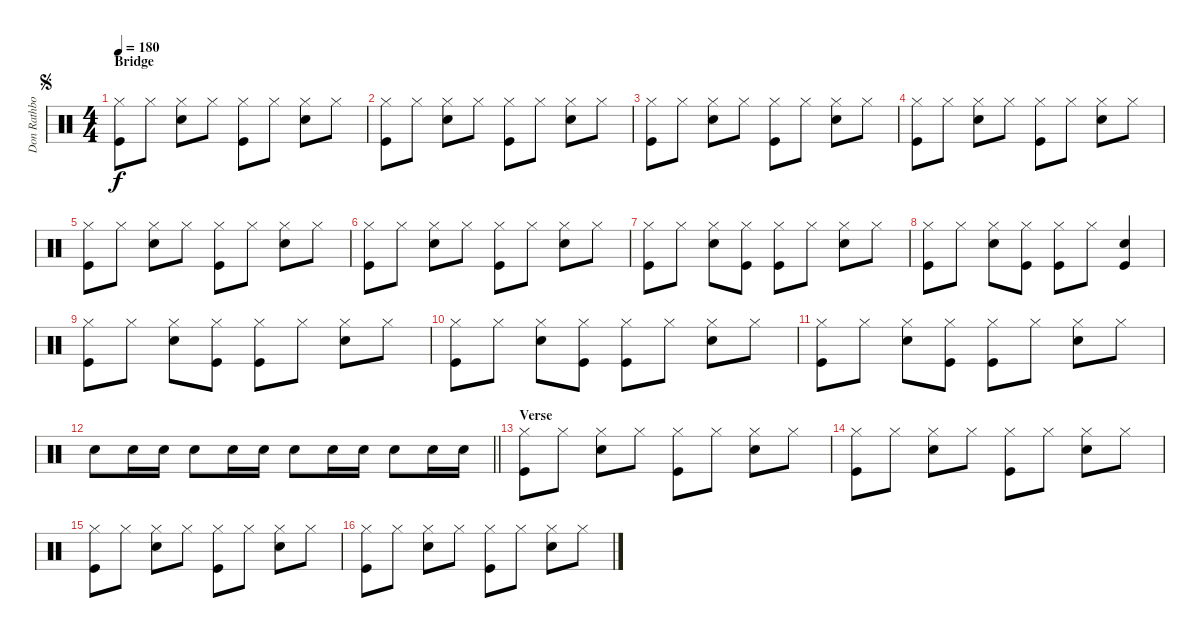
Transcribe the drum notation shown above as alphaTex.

\track ("Don Rathbone" "Don Rathbo") {instrument percussion}
\staff {score}
\articulation defaults
\ts (4 4)
\section ("" "Bridge")
\jump segno
\tempo 180
\clef neutral
\ks c
("Hi-Hat (closed)" "Kick (hit)").8{dy f} "Hi-Hat (closed)".8 ("Hi-Hat (closed)" "Snare (hit) 2").8 "Hi-Hat (closed)".8 ("Hi-Hat (closed)" "Kick (hit)").8 "Hi-Hat (closed)".8 ("Hi-Hat (closed)" "Snare (hit) 2").8 "Hi-Hat (closed)".8 |
("Hi-Hat (closed)" "Kick (hit)").8 "Hi-Hat (closed)".8 ("Hi-Hat (closed)" "Snare (hit) 2").8 "Hi-Hat (closed)".8 ("Hi-Hat (closed)" "Kick (hit)").8 "Hi-Hat (closed)".8 ("Hi-Hat (closed)" "Snare (hit) 2").8 "Hi-Hat (closed)".8 |
("Hi-Hat (closed)" "Kick (hit)").8 "Hi-Hat (closed)".8 ("Hi-Hat (closed)" "Snare (hit) 2").8 "Hi-Hat (closed)".8 ("Hi-Hat (closed)" "Kick (hit)").8 "Hi-Hat (closed)".8 ("Hi-Hat (closed)" "Snare (hit) 2").8 "Hi-Hat (closed)".8 |
("Hi-Hat (closed)" "Kick (hit)").8 "Hi-Hat (closed)".8 ("Hi-Hat (closed)" "Snare (hit) 2").8 "Hi-Hat (closed)".8 ("Hi-Hat (closed)" "Kick (hit)").8 "Hi-Hat (closed)".8 ("Hi-Hat (closed)" "Snare (hit) 2").8 "Hi-Hat (closed)".8 |
("Hi-Hat (closed)" "Kick (hit)").8 "Hi-Hat (closed)".8 ("Hi-Hat (closed)" "Snare (hit) 2").8 "Hi-Hat (closed)".8 ("Hi-Hat (closed)" "Kick (hit)").8 "Hi-Hat (closed)".8 ("Hi-Hat (closed)" "Snare (hit) 2").8 "Hi-Hat (closed)".8 |
("Hi-Hat (closed)" "Kick (hit)").8 "Hi-Hat (closed)".8 ("Hi-Hat (closed)" "Snare (hit) 2").8 "Hi-Hat (closed)".8 ("Hi-Hat (closed)" "Kick (hit)").8 "Hi-Hat (closed)".8 ("Hi-Hat (closed)" "Snare (hit) 2").8 "Hi-Hat (closed)".8 |
("Hi-Hat (closed)" "Kick (hit)").8 "Hi-Hat (closed)".8 ("Hi-Hat (closed)" "Snare (hit) 2").8 ("Hi-Hat (closed)" "Kick (hit)").8 ("Hi-Hat (closed)" "Kick (hit)").8 "Hi-Hat (closed)".8 ("Hi-Hat (closed)" "Snare (hit) 2").8 "Hi-Hat (closed)".8 |
("Hi-Hat (closed)" "Kick (hit)").8 "Hi-Hat (closed)".8 ("Hi-Hat (closed)" "Snare (hit) 2").8 ("Hi-Hat (closed)" "Kick (hit)").8 ("Hi-Hat (closed)" "Kick (hit)").8 "Hi-Hat (closed)".8 ("Kick (hit)" "Snare (hit) 2").4 |
("Hi-Hat (closed)" "Kick (hit)").8 "Hi-Hat (closed)".8 ("Hi-Hat (closed)" "Snare (hit) 2").8 ("Hi-Hat (closed)" "Kick (hit)").8 ("Hi-Hat (closed)" "Kick (hit)").8 "Hi-Hat (closed)".8 ("Hi-Hat (closed)" "Snare (hit) 2").8 "Hi-Hat (closed)".8 |
("Hi-Hat (closed)" "Kick (hit)").8 "Hi-Hat (closed)".8 ("Hi-Hat (closed)" "Snare (hit) 2").8 ("Hi-Hat (closed)" "Kick (hit)").8 ("Hi-Hat (closed)" "Kick (hit)").8 "Hi-Hat (closed)".8 ("Hi-Hat (closed)" "Snare (hit) 2").8 "Hi-Hat (closed)".8 |
("Hi-Hat (closed)" "Kick (hit)").8 "Hi-Hat (closed)".8 ("Hi-Hat (closed)" "Snare (hit) 2").8 ("Hi-Hat (closed)" "Kick (hit)").8 ("Hi-Hat (closed)" "Kick (hit)").8 "Hi-Hat (closed)".8 ("Hi-Hat (closed)" "Snare (hit) 2").8 "Hi-Hat (closed)".8 |
\barLineRight lightlight "Snare (hit) 2".8 "Snare (hit) 2".16 "Snare (hit) 2".16 "Snare (hit) 2".8 "Snare (hit) 2".16 "Snare (hit) 2".16 "Snare (hit) 2".8 "Snare (hit) 2".16 "Snare (hit) 2".16 "Snare (hit) 2".8 "Snare (hit) 2".16 "Snare (hit) 2".16
|
\section ("" "Verse")
("Hi-Hat (closed)" "Kick (hit)").8 "Hi-Hat (closed)".8 ("Hi-Hat (closed)" "Snare (hit) 2").8 "Hi-Hat (closed)".8 ("Hi-Hat (closed)" "Kick (hit)").8 "Hi-Hat (closed)".8 ("Hi-Hat (closed)" "Snare (hit) 2").8 "Hi-Hat (closed)".8 |
("Hi-Hat (closed)" "Kick (hit)").8 "Hi-Hat (closed)".8 ("Hi-Hat (closed)" "Snare (hit) 2").8 "Hi-Hat (closed)".8 ("Hi-Hat (closed)" "Kick (hit)").8 "Hi-Hat (closed)".8 ("Hi-Hat (closed)" "Snare (hit) 2").8 "Hi-Hat (closed)".8 |
("Hi-Hat (closed)" "Kick (hit)").8 "Hi-Hat (closed)".8 ("Hi-Hat (closed)" "Snare (hit) 2").8 "Hi-Hat (closed)".8 ("Hi-Hat (closed)" "Kick (hit)").8 "Hi-Hat (closed)".8 ("Hi-Hat (closed)" "Snare (hit) 2").8 "Hi-Hat (closed)".8 |
("Hi-Hat (closed)" "Kick (hit)").8 "Hi-Hat (closed)".8 ("Hi-Hat (closed)" "Snare (hit) 2").8 "Hi-Hat (closed)".8 ("Hi-Hat (closed)" "Kick (hit)").8 "Hi-Hat (closed)".8 ("Hi-Hat (closed)" "Snare (hit) 2").8 "Hi-Hat (closed)".8
